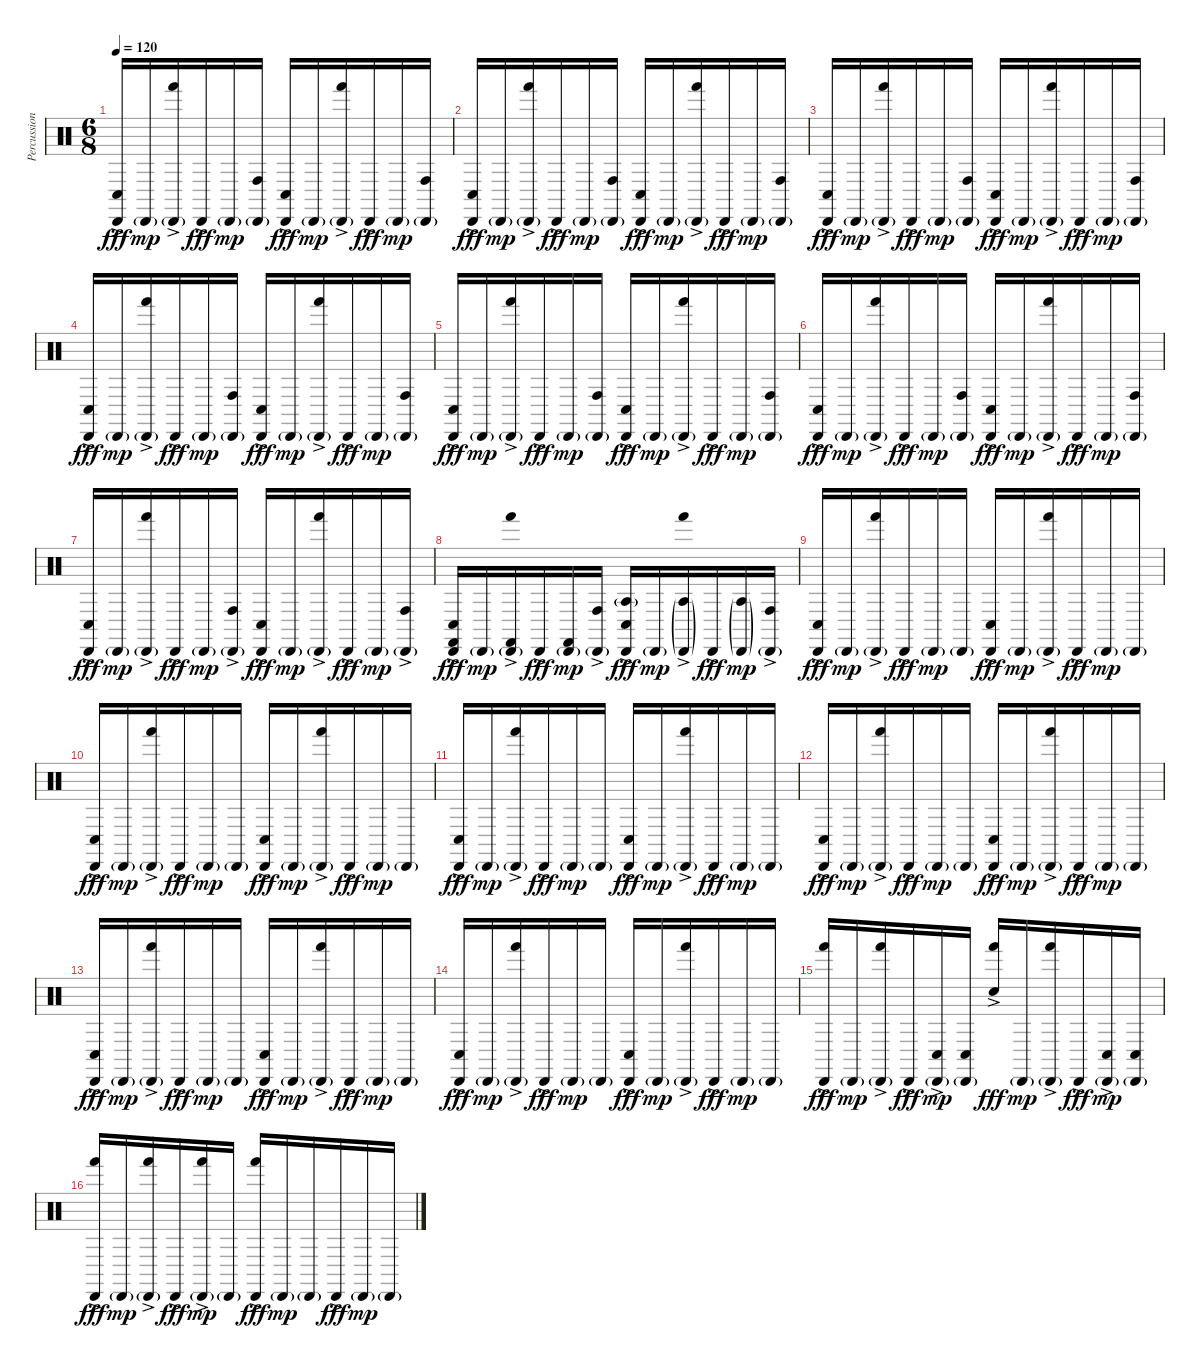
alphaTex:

\track ("Percussion" "Percussion") {instrument percussion}
\staff {score}
\articulation defaults
\ts (6 8)
\tempo 120
\clef neutral
\ks c
("Conga low (hit)"{ac} "Cabasa (hit)"{ac}).16{dy fff} "Cabasa (hit)"{g}.16{dy mp} ("Hand (hit)"{ac} "Cabasa (hit)"{g}).16 "Cabasa (hit)"{ac}.16{dy fff} "Cabasa (hit)"{g}.16{dy mp} ("Conga high (hit)" "Cabasa (hit)"{g}).16 ("Conga low (hit)"{ac} "Cabasa (hit)"{ac}).16{dy fff} "Cabasa (hit)"{g}.16{dy mp} ("Hand (hit)"{ac} "Cabasa (hit)"{g}).16 "Cabasa (hit)"{ac}.16{dy fff} "Cabasa (hit)"{g}.16{dy mp} ("Conga high (hit)" "Cabasa (hit)"{g}).16 |
("Conga low (hit)"{ac} "Cabasa (hit)"{ac}).16{dy fff} "Cabasa (hit)"{g}.16{dy mp} ("Hand (hit)"{ac} "Cabasa (hit)"{g}).16 "Cabasa (hit)"{ac}.16{dy fff} "Cabasa (hit)"{g}.16{dy mp} ("Conga high (hit)" "Cabasa (hit)"{g}).16 ("Conga low (hit)"{ac} "Cabasa (hit)"{ac}).16{dy fff} "Cabasa (hit)"{g}.16{dy mp} ("Hand (hit)"{ac} "Cabasa (hit)"{g}).16 "Cabasa (hit)"{ac}.16{dy fff} "Cabasa (hit)"{g}.16{dy mp} ("Conga high (hit)" "Cabasa (hit)"{g}).16 |
("Conga low (hit)"{ac} "Cabasa (hit)"{ac}).16{dy fff} "Cabasa (hit)"{g}.16{dy mp} ("Hand (hit)"{ac} "Cabasa (hit)"{g}).16 "Cabasa (hit)"{ac}.16{dy fff} "Cabasa (hit)"{g}.16{dy mp} ("Conga high (hit)" "Cabasa (hit)"{g}).16 ("Conga low (hit)"{ac} "Cabasa (hit)"{ac}).16{dy fff} "Cabasa (hit)"{g}.16{dy mp} ("Hand (hit)"{ac} "Cabasa (hit)"{g}).16 "Cabasa (hit)"{ac}.16{dy fff} "Cabasa (hit)"{g}.16{dy mp} ("Conga high (hit)" "Cabasa (hit)"{g}).16 |
("Conga low (hit)"{ac} "Cabasa (hit)"{ac}).16{dy fff} "Cabasa (hit)"{g}.16{dy mp} ("Hand (hit)"{ac} "Cabasa (hit)"{g}).16 "Cabasa (hit)"{ac}.16{dy fff} "Cabasa (hit)"{g}.16{dy mp} ("Conga high (hit)" "Cabasa (hit)"{g}).16 ("Conga low (hit)"{ac} "Cabasa (hit)"{ac}).16{dy fff} "Cabasa (hit)"{g}.16{dy mp} ("Hand (hit)"{ac} "Cabasa (hit)"{g}).16 "Cabasa (hit)"{ac}.16{dy fff} "Cabasa (hit)"{g}.16{dy mp} ("Conga high (hit)" "Cabasa (hit)"{g}).16 |
("Conga low (hit)"{ac} "Cabasa (hit)"{ac}).16{dy fff} "Cabasa (hit)"{g}.16{dy mp} ("Hand (hit)"{ac} "Cabasa (hit)"{g}).16 "Cabasa (hit)"{ac}.16{dy fff} "Cabasa (hit)"{g}.16{dy mp} ("Conga high (hit)" "Cabasa (hit)"{g}).16 ("Conga low (hit)"{ac} "Cabasa (hit)"{ac}).16{dy fff} "Cabasa (hit)"{g}.16{dy mp} ("Hand (hit)"{ac} "Cabasa (hit)"{g}).16 "Cabasa (hit)"{ac}.16{dy fff} "Cabasa (hit)"{g}.16{dy mp} ("Conga high (hit)" "Cabasa (hit)"{g}).16 |
("Conga low (hit)"{ac} "Cabasa (hit)"{ac}).16{dy fff} "Cabasa (hit)"{g}.16{dy mp} ("Hand (hit)"{ac} "Cabasa (hit)"{g}).16 "Cabasa (hit)"{ac}.16{dy fff} "Cabasa (hit)"{g}.16{dy mp} ("Conga high (hit)" "Cabasa (hit)"{g}).16 ("Conga low (hit)"{ac} "Cabasa (hit)"{ac}).16{dy fff} "Cabasa (hit)"{g}.16{dy mp} ("Hand (hit)"{ac} "Cabasa (hit)"{g}).16 "Cabasa (hit)"{ac}.16{dy fff} "Cabasa (hit)"{g}.16{dy mp} ("Conga high (hit)" "Cabasa (hit)"{g}).16 |
("Conga low (hit)"{ac} "Cabasa (hit)"{ac}).16{dy fff} "Cabasa (hit)"{g}.16{dy mp} ("Hand (hit)"{ac} "Cabasa (hit)"{g}).16 "Cabasa (hit)"{ac}.16{dy fff} "Cabasa (hit)"{g}.16{dy mp} ("Conga high (hit)"{ac} "Cabasa (hit)"{g}).16 ("Conga low (hit)"{ac} "Cabasa (hit)"{ac}).16{dy fff} "Cabasa (hit)"{g}.16{dy mp} ("Hand (hit)"{ac} "Cabasa (hit)"{g}).16 "Cabasa (hit)"{ac}.16{dy fff} "Cabasa (hit)"{g}.16{dy mp} ("Conga high (hit)"{ac} "Cabasa (hit)"{g}).16 |
("Castanets (hit)" "Conga low (hit)"{ac} "Cabasa (hit)"{ac}).16{dy fff} "Cabasa (hit)"{g}.16{dy mp} ("Castanets (hit)" "Hand (hit)"{ac} "Cabasa (hit)"{g}).16 "Cabasa (hit)"{ac}.16{dy fff} ("Castanets (hit)" "Cabasa (hit)"{g}).16{dy mp} ("Conga high (hit)"{ac} "Cabasa (hit)"{g}).16 ("Agogo tow (hit)"{g} "Conga low (hit)"{ac} "Cabasa (hit)"{ac}).16{dy fff} "Cabasa (hit)"{g}.16{dy mp} ("Agogo tow (hit)"{g} "Hand (hit)"{ac} "Cabasa (hit)"{g}).16 "Cabasa (hit)"{ac}.16{dy fff} ("Agogo tow (hit)"{g} "Cabasa (hit)"{g}).16{dy mp} ("Conga high (hit)"{ac} "Cabasa (hit)"{g}).16 |
("Conga low (hit)"{ac} "Cabasa (hit)"{ac}).16{dy fff} "Cabasa (hit)"{g}.16{dy mp} ("Hand (hit)"{ac} "Cabasa (hit)"{g}).16 "Cabasa (hit)"{ac}.16{dy fff} "Cabasa (hit)"{g}.16{dy mp} "Cabasa (hit)"{g}.16 ("Conga low (hit)"{ac} "Cabasa (hit)"{ac}).16{dy fff} "Cabasa (hit)"{g}.16{dy mp} ("Hand (hit)"{ac} "Cabasa (hit)"{g}).16 "Cabasa (hit)"{ac}.16{dy fff} "Cabasa (hit)"{g}.16{dy mp} "Cabasa (hit)"{g}.16 |
("Conga low (hit)"{ac} "Cabasa (hit)"{ac}).16{dy fff} "Cabasa (hit)"{g}.16{dy mp} ("Hand (hit)"{ac} "Cabasa (hit)"{g}).16 "Cabasa (hit)"{ac}.16{dy fff} "Cabasa (hit)"{g}.16{dy mp} "Cabasa (hit)"{g}.16 ("Conga low (hit)"{ac} "Cabasa (hit)"{ac}).16{dy fff} "Cabasa (hit)"{g}.16{dy mp} ("Hand (hit)"{ac} "Cabasa (hit)"{g}).16 "Cabasa (hit)"{ac}.16{dy fff} "Cabasa (hit)"{g}.16{dy mp} "Cabasa (hit)"{g}.16 |
("Conga low (hit)"{ac} "Cabasa (hit)"{ac}).16{dy fff} "Cabasa (hit)"{g}.16{dy mp} ("Hand (hit)"{ac} "Cabasa (hit)"{g}).16 "Cabasa (hit)"{ac}.16{dy fff} "Cabasa (hit)"{g}.16{dy mp} "Cabasa (hit)"{g}.16 ("Conga low (hit)"{ac} "Cabasa (hit)"{ac}).16{dy fff} "Cabasa (hit)"{g}.16{dy mp} ("Hand (hit)"{ac} "Cabasa (hit)"{g}).16 "Cabasa (hit)"{ac}.16{dy fff} "Cabasa (hit)"{g}.16{dy mp} "Cabasa (hit)"{g}.16 |
("Conga low (hit)"{ac} "Cabasa (hit)"{ac}).16{dy fff} "Cabasa (hit)"{g}.16{dy mp} ("Hand (hit)"{ac} "Cabasa (hit)"{g}).16 "Cabasa (hit)"{ac}.16{dy fff} "Cabasa (hit)"{g}.16{dy mp} "Cabasa (hit)"{g}.16 ("Conga low (hit)"{ac} "Cabasa (hit)"{ac}).16{dy fff} "Cabasa (hit)"{g}.16{dy mp} ("Hand (hit)"{ac} "Cabasa (hit)"{g}).16 "Cabasa (hit)"{ac}.16{dy fff} "Cabasa (hit)"{g}.16{dy mp} "Cabasa (hit)"{g}.16 |
("Conga low (hit)"{ac} "Cabasa (hit)"{ac}).16{dy fff} "Cabasa (hit)"{g}.16{dy mp} ("Hand (hit)"{ac} "Cabasa (hit)"{g}).16 "Cabasa (hit)"{ac}.16{dy fff} "Cabasa (hit)"{g}.16{dy mp} "Cabasa (hit)"{g}.16 ("Conga low (hit)"{ac} "Cabasa (hit)"{ac}).16{dy fff} "Cabasa (hit)"{g}.16{dy mp} ("Hand (hit)"{ac} "Cabasa (hit)"{g}).16 "Cabasa (hit)"{ac}.16{dy fff} "Cabasa (hit)"{g}.16{dy mp} "Cabasa (hit)"{g}.16 |
("Conga low (hit)"{ac} "Cabasa (hit)"{ac}).16{dy fff} "Cabasa (hit)"{g}.16{dy mp} ("Hand (hit)"{ac} "Cabasa (hit)"{g}).16 "Cabasa (hit)"{ac}.16{dy fff} "Cabasa (hit)"{g}.16{dy mp} "Cabasa (hit)"{g}.16 ("Conga low (hit)"{ac} "Cabasa (hit)"{ac}).16{dy fff} "Cabasa (hit)"{g}.16{dy mp} ("Hand (hit)"{ac} "Cabasa (hit)"{g}).16 "Cabasa (hit)"{ac}.16{dy fff} "Cabasa (hit)"{g}.16{dy mp} "Cabasa (hit)"{g}.16 |
("Hand (hit)"{ac} "Cabasa (hit)"{ac}).16{dy fff} "Cabasa (hit)"{g}.16{dy mp} ("Hand (hit)"{ac} "Cabasa (hit)"{g}).16 "Cabasa (hit)"{ac}.16{dy fff} ("Conga low (hit)"{ac} "Cabasa (hit)"{g}).16{dy mp} ("Conga low (hit)" "Cabasa (hit)"{g}).16 ("Hand (hit)"{ac} "Snare (hit)"{ac}).16{dy fff} "Cabasa (hit)"{g}.16{dy mp} ("Hand (hit)"{ac} "Cabasa (hit)"{g}).16 "Cabasa (hit)"{ac}.16{dy fff} ("Conga low (hit)"{ac} "Cabasa (hit)"{g}).16{dy mp} ("Conga low (hit)" "Cabasa (hit)"{g}).16 |
("Hand (hit)"{ac} "Cabasa (hit)"{ac}).16{dy fff} "Cabasa (hit)"{g}.16{dy mp} ("Hand (hit)"{ac} "Cabasa (hit)"{g}).16 "Cabasa (hit)"{ac}.16{dy fff} ("Hand (hit)"{ac} "Cabasa (hit)"{g}).16{dy mp} "Cabasa (hit)"{g}.16 ("Hand (hit)"{ac} "Cabasa (hit)"{ac}).16{dy fff} "Cabasa (hit)"{g}.16{dy mp} "Cabasa (hit)"{g}.16 "Cabasa (hit)"{ac}.16{dy fff} "Cabasa (hit)"{g}.16{dy mp} "Cabasa (hit)"{g}.16
